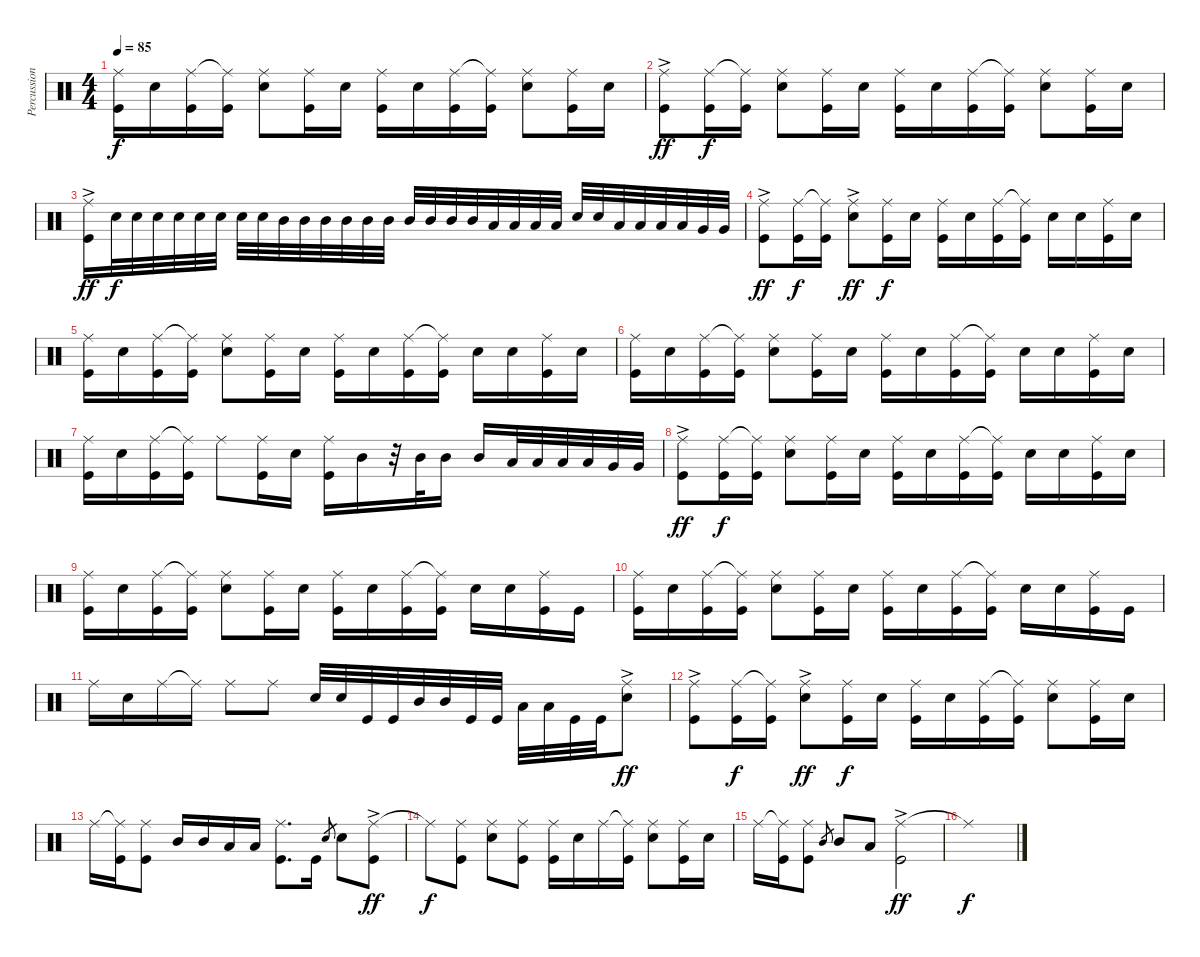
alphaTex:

\track ("Percussion" "Percussion") {instrument percussion}
\staff {score}
\articulation defaults
\ts (4 4)
\tempo 85
\clef neutral
\ks c
("Ride (middle)" "Kick (hit)").16{dy f} "Snare (hit) 2".16 ("Ride (middle)" "Kick (hit)").16 ("Ride (middle)"{t} "Kick (hit)").16 ("Ride (middle)" "Snare (hit) 2").8 ("Ride (middle)" "Kick (hit)").16 "Snare (hit) 2".16 ("Ride (middle)" "Kick (hit)").16 "Snare (hit) 2".16 ("Ride (middle)" "Kick (hit)").16 ("Ride (middle)"{t} "Kick (hit)").16 ("Ride (middle)" "Snare (hit) 2").8 ("Ride (middle)" "Kick (hit)").16 "Snare (hit) 2".16 |
("Ride (middle)"{ac} "Kick (hit)").8{dy ff} ("Ride (middle)" "Kick (hit)").16{dy f} ("Ride (middle)"{t} "Kick (hit)").16 ("Ride (middle)" "Snare (hit) 2").8 ("Ride (middle)" "Kick (hit)").16 "Snare (hit) 2".16 ("Ride (middle)" "Kick (hit)").16 "Snare (hit) 2".16 ("Ride (middle)" "Kick (hit)").16 ("Ride (middle)"{t} "Kick (hit)").16 ("Ride (middle)" "Snare (hit) 2").8 ("Ride (middle)" "Kick (hit)").16 "Snare (hit) 2".16 |
("Ride (middle)"{ac} "Kick (hit)").16{dy ff} "Snare (hit) 2".32{dy f} "Snare (hit) 2".32 "Snare (hit) 2".32 "Snare (hit) 2".32 "Snare (hit) 2".32 "Snare (hit) 2".32 "Snare (hit) 2".32 "Snare (hit) 2".32 "Mid Tom (hit)".32 "Mid Tom (hit)".32 "Mid Tom (hit)".32 "Mid Tom (hit)".32 "Mid Tom (hit)".32 "Mid Tom (hit)".32 "Mid Tom (hit)".32 "Mid Tom (hit)".32 "Mid Tom (hit)".32 "Mid Tom (hit)".32 "Low Tom (hit)".32 "Low Tom (hit)".32 "Low Tom (hit)".32 "Low Tom (hit)".32 "Snare (hit) 2".32 "Snare (hit) 2".32 "Low Tom (hit)".32 "Low Tom (hit)".32 "Low Tom (hit)".32 "Low Tom (hit)".32 "Very Low Tom (hit)".32 "Very Low Tom (hit)".32 |
("Ride (middle)"{ac} "Kick (hit)").8{dy ff} ("Ride (middle)" "Kick (hit)").16{dy f} ("Ride (middle)"{t} "Kick (hit)").16 ("Ride (middle)"{ac} "Snare (hit) 2").8{dy ff} ("Ride (middle)" "Kick (hit)").16{dy f} "Snare (hit) 2".16 ("Ride (middle)" "Kick (hit)").16 "Snare (hit) 2".16 ("Ride (middle)" "Kick (hit)").16 ("Ride (middle)"{t} "Kick (hit)").16 "Snare (hit) 2".16 "Snare (hit) 2".16 ("Ride (middle)" "Kick (hit)").16 "Snare (hit) 2".16 |
("Ride (middle)" "Kick (hit)").16 "Snare (hit) 2".16 ("Ride (middle)" "Kick (hit)").16 ("Ride (middle)"{t} "Kick (hit)").16 ("Ride (middle)" "Snare (hit) 2").8 ("Ride (middle)" "Kick (hit)").16 "Snare (hit) 2".16 ("Ride (middle)" "Kick (hit)").16 "Snare (hit) 2".16 ("Ride (middle)" "Kick (hit)").16 ("Ride (middle)"{t} "Kick (hit)").16 "Snare (hit) 2".16 "Snare (hit) 2".16 ("Ride (middle)" "Kick (hit)").16 "Snare (hit) 2".16 |
("Ride (middle)" "Kick (hit)").16 "Snare (hit) 2".16 ("Ride (middle)" "Kick (hit)").16 ("Ride (middle)"{t} "Kick (hit)").16 ("Ride (middle)" "Snare (hit) 2").8 ("Ride (middle)" "Kick (hit)").16 "Snare (hit) 2".16 ("Ride (middle)" "Kick (hit)").16 "Snare (hit) 2".16 ("Ride (middle)" "Kick (hit)").16 ("Ride (middle)"{t} "Kick (hit)").16 "Snare (hit) 2".16 "Snare (hit) 2".16 ("Ride (middle)" "Kick (hit)").16 "Snare (hit) 2".16 |
("Ride (middle)" "Kick (hit)").16 "Snare (hit) 2".16 ("Ride (middle)" "Kick (hit)").16 ("Ride (middle)"{t} "Kick (hit)").16 "Ride (middle)".8 ("Ride (middle)" "Kick (hit)").16 "Snare (hit) 2".16 ("Ride (middle)" "Kick (hit)").16 "Mid Tom (hit)".16 r.32 "Mid Tom (hit)".32 "Mid Tom (hit)".16 "Mid Tom (hit)".16 "Low Tom (hit)".32 "Low Tom (hit)".32 "Low Tom (hit)".32 "Low Tom (hit)".32 "Very Low Tom (hit)".32 "Very Low Tom (hit)".32 |
("Ride (middle)"{ac} "Kick (hit)").8{dy ff} ("Ride (middle)" "Kick (hit)").16{dy f} ("Ride (middle)"{t} "Kick (hit)").16 ("Ride (middle)" "Snare (hit) 2").8 ("Ride (middle)" "Kick (hit)").16 "Snare (hit) 2".16 ("Ride (middle)" "Kick (hit)").16 "Snare (hit) 2".16 ("Ride (middle)" "Kick (hit)").16 ("Ride (middle)"{t} "Kick (hit)").16 "Snare (hit) 2".16 "Snare (hit) 2".16 ("Ride (middle)" "Kick (hit)").16 "Snare (hit) 2".16 |
("Ride (middle)" "Kick (hit)").16 "Snare (hit) 2".16 ("Ride (middle)" "Kick (hit)").16 ("Ride (middle)"{t} "Kick (hit)").16 ("Ride (middle)" "Snare (hit) 2").8 ("Ride (middle)" "Kick (hit)").16 "Snare (hit) 2".16 ("Ride (middle)" "Kick (hit)").16 "Snare (hit) 2".16 ("Ride (middle)" "Kick (hit)").16 ("Ride (middle)"{t} "Kick (hit)").16 "Snare (hit) 2".16 "Snare (hit) 2".16 ("Ride (middle)" "Kick (hit)").16 "Kick (hit)".16 |
("Ride (middle)" "Kick (hit)").16 "Snare (hit) 2".16 ("Ride (middle)" "Kick (hit)").16 ("Ride (middle)"{t} "Kick (hit)").16 ("Ride (middle)" "Snare (hit) 2").8 ("Ride (middle)" "Kick (hit)").16 "Snare (hit) 2".16 ("Ride (middle)" "Kick (hit)").16 "Snare (hit) 2".16 ("Ride (middle)" "Kick (hit)").16 ("Ride (middle)"{t} "Kick (hit)").16 "Snare (hit) 2".16 "Snare (hit) 2".16 ("Ride (middle)" "Kick (hit)").16 "Kick (hit)".16 |
"Ride (middle)".16 "Snare (hit) 2".16 "Ride (middle)".16 "Ride (middle)"{t}.16 "Ride (middle)".8 "Ride (middle)".8 "Snare (hit) 2".32 "Snare (hit) 2".32 "Kick (hit)".32 "Kick (hit)".32 "Mid Tom (hit)".32 "Mid Tom (hit)".32 "Kick (hit)".32 "Kick (hit)".32 "Low Tom (hit)".32 "Low Tom (hit)".32 "Kick (hit)".32 "Kick (hit)".32 ("Ride (middle)"{ac} "Snare (hit) 2").8{dy ff} |
("Ride (middle)"{ac} "Kick (hit)").8 ("Ride (middle)" "Kick (hit)").16{dy f} ("Ride (middle)"{t} "Kick (hit)").16 ("Ride (middle)"{ac} "Snare (hit) 2").8{dy ff} ("Ride (middle)" "Kick (hit)").16{dy f} "Snare (hit) 2".16 ("Ride (middle)" "Kick (hit)").16 "Snare (hit) 2".16 ("Ride (middle)" "Kick (hit)").16 ("Ride (middle)"{t} "Kick (hit)").16 ("Ride (middle)" "Snare (hit) 2").8 ("Ride (middle)" "Kick (hit)").16 "Snare (hit) 2".16 |
"Ride (middle)".16 ("Ride (middle)"{t} "Kick (hit)").16 ("Ride (middle)" "Kick (hit)").8 "Mid Tom (hit)".16 "Mid Tom (hit)".16 "Low Tom (hit)".16 "Low Tom (hit)".16 ("Ride (middle)" "Kick (hit)").8{d} "Kick (hit)".16 "Snare (hit) 2".8{gr} "Snare (hit) 2".8 ("Ride (middle)"{ac} "Kick (hit)").8{dy ff} |
"Ride (middle)"{t}.8{dy f} ("Ride (middle)" "Kick (hit)").8 ("Ride (middle)" "Snare (hit) 2").8 ("Ride (middle)" "Kick (hit)").8 ("Ride (middle)" "Kick (hit)").16 "Snare (hit) 2".16 "Ride (middle)".16 ("Ride (middle)"{t} "Kick (hit)").16 ("Ride (middle)" "Snare (hit) 2").8 ("Ride (middle)" "Kick (hit)").16 "Snare (hit) 2".16 |
"Ride (middle)".16 ("Ride (middle)"{t} "Kick (hit)").16 ("Ride (middle)" "Kick (hit)").8 "Mid Tom (hit)".8{gr} "Mid Tom (hit)".8 "Low Tom (hit)".8 ("Ride (middle)"{ac} "Kick (hit)").2{dy ff} |
"Ride (middle)"{t}.1{dy f}
